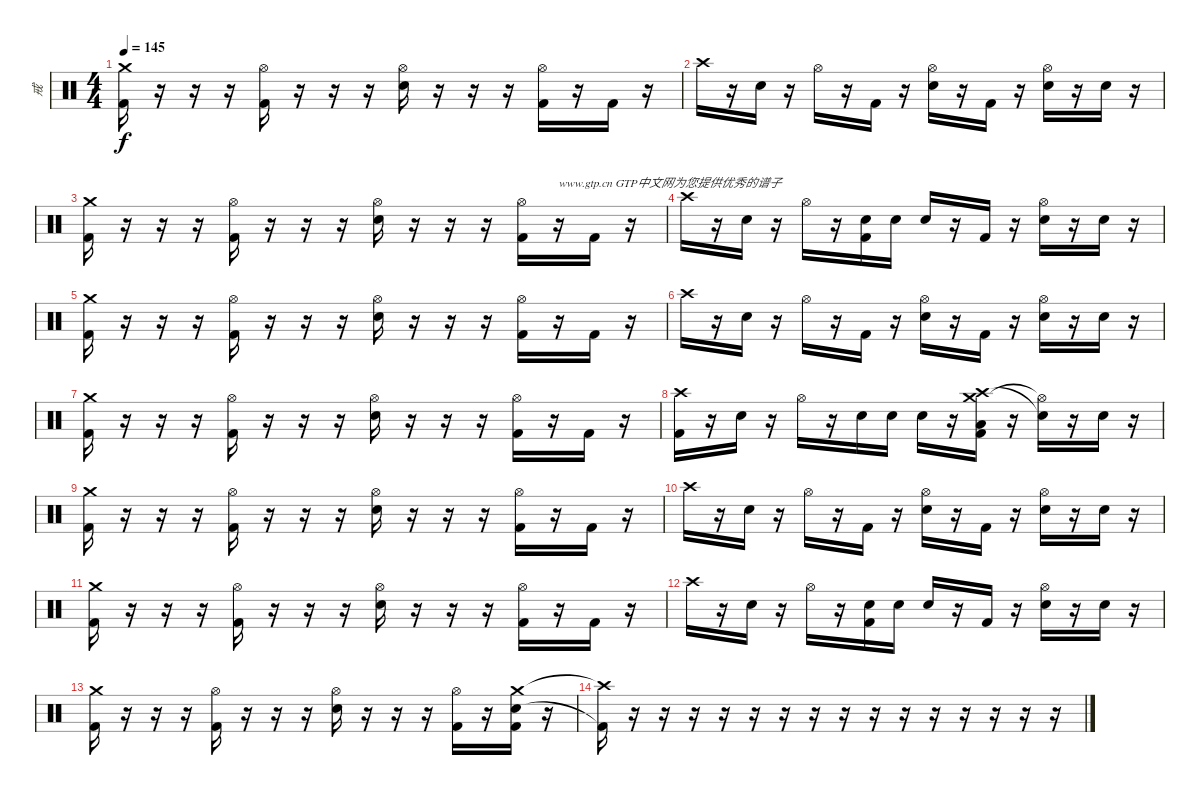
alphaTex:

\track ("戒" "戒") {instrument percussion}
\staff {score}
\articulation defaults
\ts (4 4)
\tempo 145
\clef neutral
\ks c
("Crash medium (hit)" "Kick (hit) 2").16{dy f} r.16 r.16 r.16 ("Hi-Hat (open)" "Kick (hit) 2").16 r.16 r.16 r.16 ("Hi-Hat (open)" "Electric Snare (hit)").16 r.16 r.16 r.16 ("Hi-Hat (open)" "Kick (hit) 2").16 r.16 "Kick (hit) 2".16 r.16 |
"Crash high (hit)".16 r.16 "Electric Snare (hit)".16 r.16 "Hi-Hat (open)".16 r.16 "Kick (hit) 2".16 r.16 ("Hi-Hat (open)" "Electric Snare (hit)").16 r.16 "Kick (hit) 2".16 r.16 ("Hi-Hat (open)" "Electric Snare (hit)").16 r.16 "Electric Snare (hit)".16 r.16 |
("Crash medium (hit)" "Kick (hit) 2").16 r.16 r.16 r.16 ("Hi-Hat (open)" "Kick (hit) 2").16 r.16 r.16 r.16 ("Hi-Hat (open)" "Electric Snare (hit)").16 r.16 r.16 r.16 ("Hi-Hat (open)" "Kick (hit) 2").16 r.16{txt "www.gtp.cn GTP中文网为您提供优秀的谱子"} "Kick (hit) 2".16 r.16 |
"Crash high (hit)".16 r.16 "Electric Snare (hit)".16 r.16 "Hi-Hat (open)".16 r.16 ("Electric Snare (hit)" "Kick (hit) 2").16 "Electric Snare (hit)".16 "Electric Snare (hit)".16 r.16 "Kick (hit) 2".16 r.16 ("Hi-Hat (open)" "Electric Snare (hit)").16 r.16 "Electric Snare (hit)".16 r.16 |
("Crash medium (hit)" "Kick (hit) 2").16 r.16 r.16 r.16 ("Hi-Hat (open)" "Kick (hit) 2").16 r.16 r.16 r.16 ("Hi-Hat (open)" "Electric Snare (hit)").16 r.16 r.16 r.16 ("Hi-Hat (open)" "Kick (hit) 2").16 r.16 "Kick (hit) 2".16 r.16 |
"Crash high (hit)".16 r.16 "Electric Snare (hit)".16 r.16 "Hi-Hat (open)".16 r.16 "Kick (hit) 2".16 r.16 ("Hi-Hat (open)" "Electric Snare (hit)").16 r.16 "Kick (hit) 2".16 r.16 ("Hi-Hat (open)" "Electric Snare (hit)").16 r.16 "Electric Snare (hit)".16 r.16 |
("Crash medium (hit)" "Kick (hit) 2").16 r.16 r.16 r.16 ("Hi-Hat (open)" "Kick (hit) 2").16 r.16 r.16 r.16 ("Hi-Hat (open)" "Electric Snare (hit)").16 r.16 r.16 r.16 ("Hi-Hat (open)" "Kick (hit) 2").16 r.16 "Kick (hit) 2".16 r.16 |
("Crash high (hit)" "Kick (hit) 2").16 r.16 "Electric Snare (hit)".16 r.16 "Hi-Hat (open)".16 r.16 "Electric Snare (hit)".16 "Electric Snare (hit)".16 "Electric Snare (hit)".16 r.16 ("Crash medium (hit)" "Crash high (hit)" "Low Tom (hit)" "Kick (hit) 2").16 r.16 ("Hi-Hat (open)"{t} "Electric Snare (hit)"{t}).16 r.16 "Electric Snare (hit)".16 r.16 |
("Crash medium (hit)" "Kick (hit) 2").16 r.16 r.16 r.16 ("Hi-Hat (open)" "Kick (hit) 2").16 r.16 r.16 r.16 ("Hi-Hat (open)" "Electric Snare (hit)").16 r.16 r.16 r.16 ("Hi-Hat (open)" "Kick (hit) 2").16 r.16 "Kick (hit) 2".16 r.16 |
"Crash high (hit)".16 r.16 "Electric Snare (hit)".16 r.16 "Hi-Hat (open)".16 r.16 "Kick (hit) 2".16 r.16 ("Hi-Hat (open)" "Electric Snare (hit)").16 r.16 "Kick (hit) 2".16 r.16 ("Hi-Hat (open)" "Electric Snare (hit)").16 r.16 "Electric Snare (hit)".16 r.16 |
("Crash medium (hit)" "Kick (hit) 2").16 r.16 r.16 r.16 ("Hi-Hat (open)" "Kick (hit) 2").16 r.16 r.16 r.16 ("Hi-Hat (open)" "Electric Snare (hit)").16 r.16 r.16 r.16 ("Hi-Hat (open)" "Kick (hit) 2").16 r.16 "Kick (hit) 2".16 r.16 |
"Crash high (hit)".16 r.16 "Electric Snare (hit)".16 r.16 "Hi-Hat (open)".16 r.16 ("Electric Snare (hit)" "Kick (hit) 2").16 "Electric Snare (hit)".16 "Electric Snare (hit)".16 r.16 "Kick (hit) 2".16 r.16 ("Hi-Hat (open)" "Electric Snare (hit)").16 r.16 "Electric Snare (hit)".16 r.16 |
("Crash medium (hit)" "Kick (hit) 2").16 r.16 r.16 r.16 ("Hi-Hat (open)" "Kick (hit) 2").16 r.16 r.16 r.16 ("Hi-Hat (open)" "Electric Snare (hit)").16 r.16 r.16 r.16 ("Hi-Hat (open)" "Kick (hit) 2").16 r.16 ("Crash medium (hit)" "Electric Snare (hit)" "Kick (hit) 2").16 r.16 |
("Crash high (hit)"{t} "Kick (hit) 2"{t}).16 r.16 r.16 r.16 r.16 r.16 r.16 r.16 r.16 r.16 r.16 r.16 r.16 r.16 r.16 r.16
